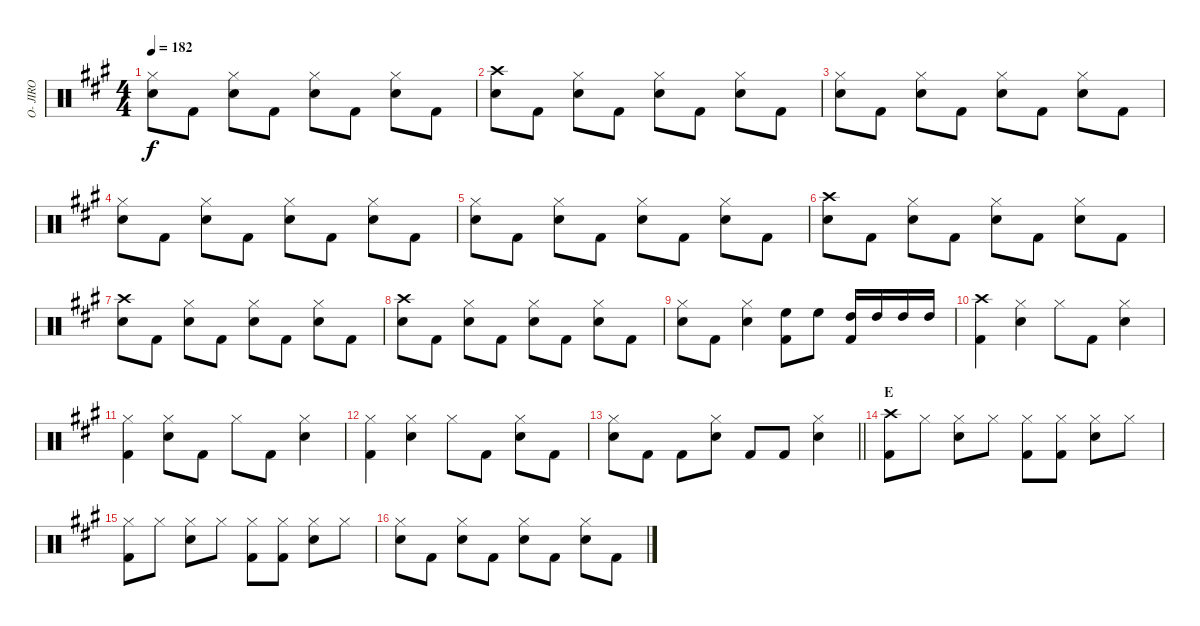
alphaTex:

\track ("O- JIRO" "O- JIRO") {instrument percussion}
\staff {score}
\articulation defaults
\ts (4 4)
\tempo 182
\clef neutral
\ks a
("Hi-Hat (closed)" "Snare (hit) 2").8{dy f} "Kick (hit) 2".8 ("Hi-Hat (closed)" "Snare (hit) 2").8 "Kick (hit) 2".8 ("Hi-Hat (closed)" "Snare (hit) 2").8 "Kick (hit) 2".8 ("Hi-Hat (closed)" "Snare (hit) 2").8 "Kick (hit) 2".8 |
("Crash high (hit)" "Snare (hit) 2").8 "Kick (hit) 2".8 ("Hi-Hat (closed)" "Snare (hit) 2").8 "Kick (hit) 2".8 ("Hi-Hat (closed)" "Snare (hit) 2").8 "Kick (hit) 2".8 ("Hi-Hat (closed)" "Snare (hit) 2").8 "Kick (hit) 2".8 |
("Hi-Hat (closed)" "Snare (hit) 2").8 "Kick (hit) 2".8 ("Hi-Hat (closed)" "Snare (hit) 2").8 "Kick (hit) 2".8 ("Hi-Hat (closed)" "Snare (hit) 2").8 "Kick (hit) 2".8 ("Hi-Hat (closed)" "Snare (hit) 2").8 "Kick (hit) 2".8 |
("Hi-Hat (closed)" "Snare (hit) 2").8 "Kick (hit) 2".8 ("Hi-Hat (closed)" "Snare (hit) 2").8 "Kick (hit) 2".8 ("Hi-Hat (closed)" "Snare (hit) 2").8 "Kick (hit) 2".8 ("Hi-Hat (closed)" "Snare (hit) 2").8 "Kick (hit) 2".8 |
("Hi-Hat (closed)" "Snare (hit) 2").8 "Kick (hit) 2".8 ("Hi-Hat (closed)" "Snare (hit) 2").8 "Kick (hit) 2".8 ("Hi-Hat (closed)" "Snare (hit) 2").8 "Kick (hit) 2".8 ("Hi-Hat (closed)" "Snare (hit) 2").8 "Kick (hit) 2".8 |
("Crash high (hit)" "Snare (hit) 2").8 "Kick (hit) 2".8 ("Hi-Hat (closed)" "Snare (hit) 2").8 "Kick (hit) 2".8 ("Hi-Hat (closed)" "Snare (hit) 2").8 "Kick (hit) 2".8 ("Hi-Hat (closed)" "Snare (hit) 2").8 "Kick (hit) 2".8 |
("Crash high (hit)" "Snare (hit) 2").8 "Kick (hit) 2".8 ("Hi-Hat (closed)" "Snare (hit) 2").8 "Kick (hit) 2".8 ("Hi-Hat (closed)" "Snare (hit) 2").8 "Kick (hit) 2".8 ("Hi-Hat (closed)" "Snare (hit) 2").8 "Kick (hit) 2".8 |
("Crash high (hit)" "Snare (hit) 2").8 "Kick (hit) 2".8 ("Hi-Hat (closed)" "Snare (hit) 2").8 "Kick (hit) 2".8 ("Hi-Hat (closed)" "Snare (hit) 2").8 "Kick (hit) 2".8 ("Hi-Hat (closed)" "Snare (hit) 2").8 "Kick (hit) 2".8 |
("Hi-Hat (closed)" "Snare (hit) 2").8 "Kick (hit) 2".8 ("Hi-Hat (closed)" "Snare (hit) 2").4 ("High Floor Tom (hit)" "Kick (hit) 2").8 "High Floor Tom (hit)".8 ("High Tom (hit)" "Kick (hit) 2").16 "High Tom (hit)".16 "High Tom (hit)".16 "High Tom (hit)".16 |
("Crash high (hit)" "Kick (hit) 2").4 ("Hi-Hat (closed)" "Snare (hit) 2").4 "Hi-Hat (closed)".8 "Kick (hit) 2".8 ("Hi-Hat (closed)" "Snare (hit) 2").4 |
("Hi-Hat (closed)" "Kick (hit) 2").4 ("Hi-Hat (closed)" "Snare (hit) 2").8 "Kick (hit) 2".8 "Hi-Hat (closed)".8 "Kick (hit) 2".8 ("Hi-Hat (closed)" "Snare (hit) 2").4 |
("Hi-Hat (closed)" "Kick (hit) 2").4 ("Hi-Hat (closed)" "Snare (hit) 2").4 "Hi-Hat (closed)".8 "Kick (hit) 2".8 ("Hi-Hat (closed)" "Snare (hit) 2").8 "Kick (hit) 2".8 |
\barLineRight lightlight
("Hi-Hat (closed)" "Snare (hit) 2").8 "Kick (hit) 2".8 "Kick (hit) 2".8 ("Hi-Hat (closed)" "Snare (hit) 2").8 "Kick (hit) 2".8 "Kick (hit) 2".8 ("Hi-Hat (closed)" "Snare (hit) 2").4 |
\section ("" "E")
("Crash high (hit)" "Kick (hit) 2").8 "Hi-Hat (closed)".8 ("Hi-Hat (closed)" "Snare (hit) 2").8 "Hi-Hat (closed)".8 ("Hi-Hat (closed)" "Kick (hit) 2").8 ("Hi-Hat (closed)" "Kick (hit) 2").8 ("Hi-Hat (closed)" "Snare (hit) 2").8 "Hi-Hat (closed)".8 |
("Hi-Hat (closed)" "Kick (hit) 2").8 "Hi-Hat (closed)".8 ("Hi-Hat (closed)" "Snare (hit) 2").8 "Hi-Hat (closed)".8 ("Hi-Hat (closed)" "Kick (hit) 2").8 ("Hi-Hat (closed)" "Kick (hit) 2").8 ("Hi-Hat (closed)" "Snare (hit) 2").8 "Hi-Hat (closed)".8 |
("Hi-Hat (closed)" "Snare (hit) 2").8 "Kick (hit) 2".8 ("Hi-Hat (closed)" "Snare (hit) 2").8 "Kick (hit) 2".8 ("Hi-Hat (closed)" "Snare (hit) 2").8 "Kick (hit) 2".8 ("Hi-Hat (closed)" "Snare (hit) 2").8 "Kick (hit) 2".8
